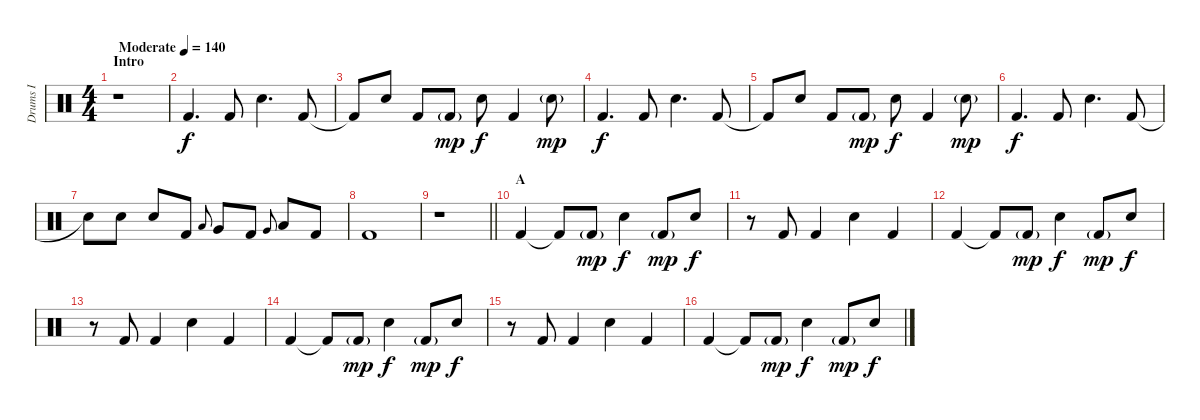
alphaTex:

\track ("Drums I" "Drums I") {instrument percussion}
\staff {score}
\articulation defaults
\ts (4 4)
\section ("" "Intro")
\tempo (140 "Moderate")
\clef neutral
\ks c
r.1{dy f} |
"Kick (hit) 2".4{d} "Kick (hit) 2".8 "Electric Snare (hit)".4{d} "Kick (hit) 2".8 |
"Kick (hit) 2"{t}.8 "Electric Snare (hit)".8 "Kick (hit) 2".8 "Kick (hit) 2"{g}.8{dy mp} "Electric Snare (hit)".8{dy f} "Kick (hit) 2".4 "Electric Snare (hit)"{g}.8{dy mp} |
"Kick (hit) 2".4{d dy f} "Kick (hit) 2".8 "Electric Snare (hit)".4{d} "Kick (hit) 2".8 |
"Kick (hit) 2"{t}.8 "Electric Snare (hit)".8 "Kick (hit) 2".8 "Kick (hit) 2"{g}.8{dy mp} "Electric Snare (hit)".8{dy f} "Kick (hit) 2".4 "Electric Snare (hit)"{g}.8{dy mp} |
"Kick (hit) 2".4{d dy f} "Kick (hit) 2".8 "Electric Snare (hit)".4{d} "Kick (hit) 2".8 |
"Snare (hit)"{t}.8 "Electric Snare (hit)".8 "Electric Snare (hit)".8 "Kick (hit) 2".8 "Low Tom (hit)".8{gr onbeat} "Very Low Tom (hit)".8 "Kick (hit) 2".8 "Very Low Tom (hit)".8{gr onbeat} "Low Floor Tom (hit)".8 "Kick (hit) 2".8 |
"Kick (hit) 2".1 |
\barLineRight lightlight
r.1 |
\section ("" "A")
"Kick (hit) 2".4 "Kick (hit) 2"{t}.8 "Kick (hit) 2"{g}.8{dy mp} "Electric Snare (hit)".4{dy f} "Kick (hit) 2"{g}.8{dy mp} "Electric Snare (hit)".8{dy f} |
r.8 "Kick (hit) 2".8 "Kick (hit) 2".4 "Electric Snare (hit)".4 "Kick (hit) 2".4 |
"Kick (hit) 2".4 "Kick (hit) 2"{t}.8 "Kick (hit) 2"{g}.8{dy mp} "Electric Snare (hit)".4{dy f} "Kick (hit) 2"{g}.8{dy mp} "Electric Snare (hit)".8{dy f} |
r.8 "Kick (hit) 2".8 "Kick (hit) 2".4 "Electric Snare (hit)".4 "Kick (hit) 2".4 |
"Kick (hit) 2".4 "Kick (hit) 2"{t}.8 "Kick (hit) 2"{g}.8{dy mp} "Electric Snare (hit)".4{dy f} "Kick (hit) 2"{g}.8{dy mp} "Electric Snare (hit)".8{dy f} |
r.8 "Kick (hit) 2".8 "Kick (hit) 2".4 "Electric Snare (hit)".4 "Kick (hit) 2".4 |
"Kick (hit) 2".4 "Kick (hit) 2"{t}.8 "Kick (hit) 2"{g}.8{dy mp} "Electric Snare (hit)".4{dy f} "Kick (hit) 2"{g}.8{dy mp} "Electric Snare (hit)".8{dy f}
